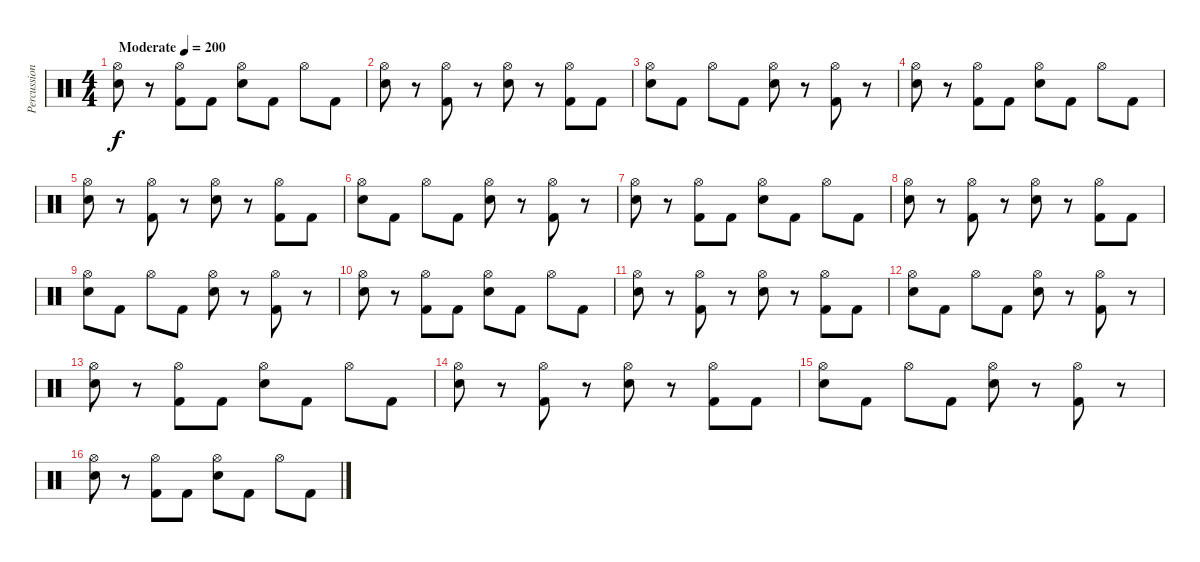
\track ("Percussions" "Percussion") {instrument percussion}
\staff {score}
\articulation defaults
\ts (4 4)
\tempo (200 "Moderate")
\clef neutral
\ks c
("Hi-Hat (open)" "Electric Snare (hit)").8{dy f volume 0} r.8{volume 2} ("Hi-Hat (open)" "Kick (hit) 2").8 "Kick (hit) 2".8 ("Hi-Hat (open)" "Electric Snare (hit)").8 "Kick (hit) 2".8 "Hi-Hat (open)".8 "Kick (hit) 2".8 |
("Hi-Hat (open)" "Electric Snare (hit)").8 r.8{volume 5} ("Hi-Hat (open)" "Kick (hit) 2").8 r.8 ("Hi-Hat (open)" "Electric Snare (hit)").8 r.8 ("Hi-Hat (open)" "Kick (hit) 2").8 "Kick (hit) 2".8 |
("Hi-Hat (open)" "Electric Snare (hit)").8 "Kick (hit) 2".8 "Hi-Hat (open)".8 "Kick (hit) 2".8 ("Hi-Hat (open)" "Electric Snare (hit)").8 r.8 ("Hi-Hat (open)" "Kick (hit) 2").8 r.8 |
("Hi-Hat (open)" "Electric Snare (hit)").8 r.8 ("Hi-Hat (open)" "Kick (hit) 2").8 "Kick (hit) 2".8 ("Hi-Hat (open)" "Electric Snare (hit)").8 "Kick (hit) 2".8 "Hi-Hat (open)".8 "Kick (hit) 2".8 |
("Hi-Hat (open)" "Electric Snare (hit)").8 r.8 ("Hi-Hat (open)" "Kick (hit) 2").8 r.8 ("Hi-Hat (open)" "Electric Snare (hit)").8 r.8 ("Hi-Hat (open)" "Kick (hit) 2").8 "Kick (hit) 2".8 |
("Hi-Hat (open)" "Electric Snare (hit)").8 "Kick (hit) 2".8 "Hi-Hat (open)".8{volume 9} "Kick (hit) 2".8 ("Hi-Hat (open)" "Electric Snare (hit)").8 r.8 ("Hi-Hat (open)" "Kick (hit) 2").8 r.8 |
("Hi-Hat (open)" "Electric Snare (hit)").8 r.8 ("Hi-Hat (open)" "Kick (hit) 2").8 "Kick (hit) 2".8 ("Hi-Hat (open)" "Electric Snare (hit)").8 "Kick (hit) 2".8 "Hi-Hat (open)".8 "Kick (hit) 2".8 |
("Hi-Hat (open)" "Electric Snare (hit)").8 r.8 ("Hi-Hat (open)" "Kick (hit) 2").8 r.8 ("Hi-Hat (open)" "Electric Snare (hit)").8 r.8 ("Hi-Hat (open)" "Kick (hit) 2").8 "Kick (hit) 2".8 |
("Hi-Hat (open)" "Electric Snare (hit)").8 "Kick (hit) 2".8 "Hi-Hat (open)".8 "Kick (hit) 2".8 ("Hi-Hat (open)" "Electric Snare (hit)").8 r.8 ("Hi-Hat (open)" "Kick (hit) 2").8 r.8 |
("Hi-Hat (open)" "Electric Snare (hit)").8 r.8 ("Hi-Hat (open)" "Kick (hit) 2").8{volume 13} "Kick (hit) 2".8 ("Hi-Hat (open)" "Electric Snare (hit)").8 "Kick (hit) 2".8 "Hi-Hat (open)".8 "Kick (hit) 2".8 |
("Hi-Hat (open)" "Electric Snare (hit)").8 r.8 ("Hi-Hat (open)" "Kick (hit) 2").8 r.8 ("Hi-Hat (open)" "Electric Snare (hit)").8 r.8 ("Hi-Hat (open)" "Kick (hit) 2").8 "Kick (hit) 2".8 |
("Hi-Hat (open)" "Electric Snare (hit)").8 "Kick (hit) 2".8 "Hi-Hat (open)".8 "Kick (hit) 2".8 ("Hi-Hat (open)" "Electric Snare (hit)").8 r.8 ("Hi-Hat (open)" "Kick (hit) 2").8 r.8 |
("Hi-Hat (open)" "Electric Snare (hit)").8 r.8 ("Hi-Hat (open)" "Kick (hit) 2").8 "Kick (hit) 2".8 ("Hi-Hat (open)" "Electric Snare (hit)").8 "Kick (hit) 2".8 "Hi-Hat (open)".8 "Kick (hit) 2".8 |
("Hi-Hat (open)" "Electric Snare (hit)").8 r.8 ("Hi-Hat (open)" "Kick (hit) 2").8 r.8 ("Hi-Hat (open)" "Electric Snare (hit)").8 r.8 ("Hi-Hat (open)" "Kick (hit) 2").8 "Kick (hit) 2".8 |
("Hi-Hat (open)" "Electric Snare (hit)").8 "Kick (hit) 2".8 "Hi-Hat (open)".8 "Kick (hit) 2".8 ("Hi-Hat (open)" "Electric Snare (hit)").8 r.8 ("Hi-Hat (open)" "Kick (hit) 2").8 r.8 |
("Hi-Hat (open)" "Electric Snare (hit)").8 r.8 ("Hi-Hat (open)" "Kick (hit) 2").8 "Kick (hit) 2".8 ("Hi-Hat (open)" "Electric Snare (hit)").8 "Kick (hit) 2".8 "Hi-Hat (open)".8 "Kick (hit) 2".8
